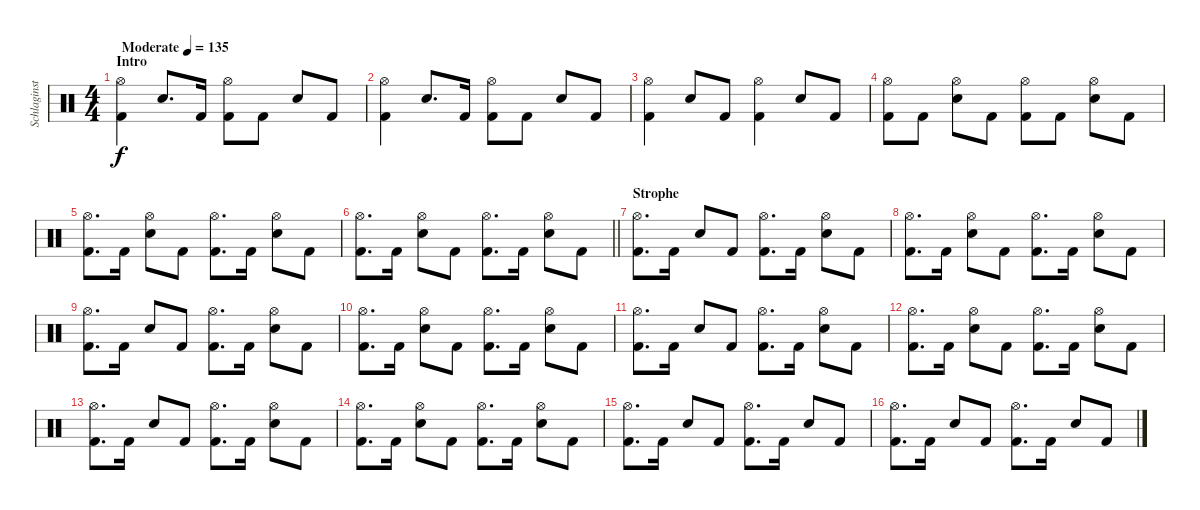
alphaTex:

\track ("Schlaginstrumente - Auswahl" "Schlaginst") {instrument percussion}
\staff {score}
\articulation defaults
\ts (4 4)
\section ("" "Intro")
\tempo (135 "Moderate")
\clef neutral
\ks c
("Hi-Hat (open)" "Kick (hit) 2").4{dy f} "Electric Snare (hit)".8{d} "Kick (hit) 2".16 ("Hi-Hat (open)" "Kick (hit) 2").8 "Kick (hit) 2".8 "Electric Snare (hit)".8 "Kick (hit) 2".8 |
("Hi-Hat (open)" "Kick (hit) 2").4 "Electric Snare (hit)".8{d} "Kick (hit) 2".16 ("Hi-Hat (open)" "Kick (hit) 2").8 "Kick (hit) 2".8 "Electric Snare (hit)".8 "Kick (hit) 2".8 |
("Hi-Hat (open)" "Kick (hit) 2").4 "Electric Snare (hit)".8 "Kick (hit) 2".8 ("Hi-Hat (open)" "Kick (hit) 2").4 "Electric Snare (hit)".8 "Kick (hit) 2".8 |
("Hi-Hat (open)" "Kick (hit) 2").8 "Kick (hit) 2".8 ("Hi-Hat (open)" "Electric Snare (hit)").8 "Kick (hit) 2".8 ("Hi-Hat (open)" "Kick (hit) 2").8 "Kick (hit) 2".8 ("Hi-Hat (open)" "Electric Snare (hit)").8 "Kick (hit) 2".8 |
("Hi-Hat (open)" "Kick (hit) 2").8{d} "Kick (hit) 2".16 ("Hi-Hat (open)" "Electric Snare (hit)").8 "Kick (hit) 2".8 ("Hi-Hat (open)" "Kick (hit) 2").8{d} "Kick (hit) 2".16 ("Hi-Hat (open)" "Electric Snare (hit)").8 "Kick (hit) 2".8 |
\barLineRight lightlight
("Hi-Hat (open)" "Kick (hit) 2").8{d} "Kick (hit) 2".16 ("Hi-Hat (open)" "Electric Snare (hit)").8 "Kick (hit) 2".8 ("Hi-Hat (open)" "Kick (hit) 2").8{d} "Kick (hit) 2".16 ("Hi-Hat (open)" "Electric Snare (hit)").8 "Kick (hit) 2".8 |
\section ("" "Strophe")
("Hi-Hat (open)" "Kick (hit) 2").8{d} "Kick (hit) 2".16 "Electric Snare (hit)".8 "Kick (hit) 2".8 ("Hi-Hat (open)" "Kick (hit) 2").8{d} "Kick (hit) 2".16 ("Hi-Hat (open)" "Electric Snare (hit)").8 "Kick (hit) 2".8 |
("Hi-Hat (open)" "Kick (hit) 2").8{d} "Kick (hit) 2".16 ("Hi-Hat (open)" "Electric Snare (hit)").8 "Kick (hit) 2".8 ("Hi-Hat (open)" "Kick (hit) 2").8{d} "Kick (hit) 2".16 ("Hi-Hat (open)" "Electric Snare (hit)").8 "Kick (hit) 2".8 |
("Hi-Hat (open)" "Kick (hit) 2").8{d} "Kick (hit) 2".16 "Electric Snare (hit)".8 "Kick (hit) 2".8 ("Hi-Hat (open)" "Kick (hit) 2").8{d} "Kick (hit) 2".16 ("Hi-Hat (open)" "Electric Snare (hit)").8 "Kick (hit) 2".8 |
("Hi-Hat (open)" "Kick (hit) 2").8{d} "Kick (hit) 2".16 ("Hi-Hat (open)" "Electric Snare (hit)").8 "Kick (hit) 2".8 ("Hi-Hat (open)" "Kick (hit) 2").8{d} "Kick (hit) 2".16 ("Hi-Hat (open)" "Electric Snare (hit)").8 "Kick (hit) 2".8 |
("Hi-Hat (open)" "Kick (hit) 2").8{d} "Kick (hit) 2".16 "Electric Snare (hit)".8 "Kick (hit) 2".8 ("Hi-Hat (open)" "Kick (hit) 2").8{d} "Kick (hit) 2".16 ("Hi-Hat (open)" "Electric Snare (hit)").8 "Kick (hit) 2".8 |
("Hi-Hat (open)" "Kick (hit) 2").8{d} "Kick (hit) 2".16 ("Hi-Hat (open)" "Electric Snare (hit)").8 "Kick (hit) 2".8 ("Hi-Hat (open)" "Kick (hit) 2").8{d} "Kick (hit) 2".16 ("Hi-Hat (open)" "Electric Snare (hit)").8 "Kick (hit) 2".8 |
("Hi-Hat (open)" "Kick (hit) 2").8{d} "Kick (hit) 2".16 "Electric Snare (hit)".8 "Kick (hit) 2".8 ("Hi-Hat (open)" "Kick (hit) 2").8{d} "Kick (hit) 2".16 ("Hi-Hat (open)" "Electric Snare (hit)").8 "Kick (hit) 2".8 |
("Hi-Hat (open)" "Kick (hit) 2").8{d} "Kick (hit) 2".16 ("Hi-Hat (open)" "Electric Snare (hit)").8 "Kick (hit) 2".8 ("Hi-Hat (open)" "Kick (hit) 2").8{d} "Kick (hit) 2".16 ("Hi-Hat (open)" "Electric Snare (hit)").8 "Kick (hit) 2".8 |
("Hi-Hat (open)" "Kick (hit) 2").8{d} "Kick (hit) 2".16 "Electric Snare (hit)".8 "Kick (hit) 2".8 ("Hi-Hat (open)" "Kick (hit) 2").8{d} "Kick (hit) 2".16 "Electric Snare (hit)".8 "Kick (hit) 2".8 |
("Hi-Hat (open)" "Kick (hit) 2").8{d} "Kick (hit) 2".16 "Electric Snare (hit)".8 "Kick (hit) 2".8 ("Hi-Hat (open)" "Kick (hit) 2").8{d} "Kick (hit) 2".16 "Electric Snare (hit)".8 "Kick (hit) 2".8
